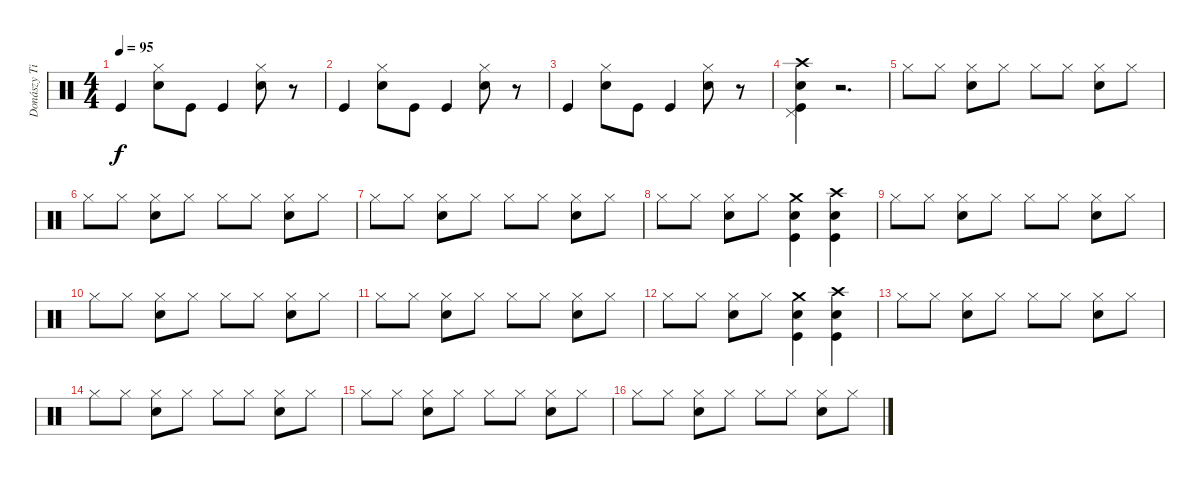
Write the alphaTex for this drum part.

\track ("Donászy Tibor" "Donászy Ti") {instrument percussion}
\staff {score}
\articulation defaults
\ts (4 4)
\tempo 95
\clef neutral
\ks c "Kick (hit)".4{dy f}
("Hi-Hat (closed)" "Snare (hit) 2").8 "Kick (hit)".8 "Kick (hit)".4 ("Hi-Hat (closed)" "Snare (hit) 2").8 r.8 |
"Kick (hit)".4 ("Hi-Hat (closed)" "Snare (hit) 2").8 "Kick (hit)".8 "Kick (hit)".4 ("Hi-Hat (closed)" "Snare (hit) 2").8 r.8 |
"Kick (hit)".4 ("Hi-Hat (closed)" "Snare (hit) 2").8 "Kick (hit)".8 "Kick (hit)".4 ("Hi-Hat (closed)" "Snare (hit) 2").8 r.8 |
("Pedal Hi-Hat (hit)" "Kick (hit)" "Snare (hit) 2" "Crash high (hit)").4 r.2{d} |
"Hi-Hat (closed)".8 "Hi-Hat (closed)".8 ("Hi-Hat (closed)" "Snare (hit) 2").8 "Hi-Hat (closed)".8 "Hi-Hat (closed)".8 "Hi-Hat (closed)".8 ("Hi-Hat (closed)" "Snare (hit) 2").8 "Hi-Hat (closed)".8 |
"Hi-Hat (closed)".8 "Hi-Hat (closed)".8 ("Hi-Hat (closed)" "Snare (hit) 2").8 "Hi-Hat (closed)".8 "Hi-Hat (closed)".8 "Hi-Hat (closed)".8 ("Hi-Hat (closed)" "Snare (hit) 2").8 "Hi-Hat (closed)".8 |
"Hi-Hat (closed)".8 "Hi-Hat (closed)".8 ("Hi-Hat (closed)" "Snare (hit) 2").8 "Hi-Hat (closed)".8 "Hi-Hat (closed)".8 "Hi-Hat (closed)".8 ("Hi-Hat (closed)" "Snare (hit) 2").8 "Hi-Hat (closed)".8 |
"Hi-Hat (closed)".8 "Hi-Hat (closed)".8 ("Hi-Hat (closed)" "Snare (hit) 2").8 "Hi-Hat (closed)".8 ("Kick (hit)" "Snare (hit) 2" "Crash medium (hit)").4 ("Kick (hit)" "Snare (hit) 2" "Crash high (hit)").4 |
"Hi-Hat (closed)".8 "Hi-Hat (closed)".8 ("Hi-Hat (closed)" "Snare (hit) 2").8 "Hi-Hat (closed)".8 "Hi-Hat (closed)".8 "Hi-Hat (closed)".8 ("Hi-Hat (closed)" "Snare (hit) 2").8 "Hi-Hat (closed)".8 |
"Hi-Hat (closed)".8 "Hi-Hat (closed)".8 ("Hi-Hat (closed)" "Snare (hit) 2").8 "Hi-Hat (closed)".8 "Hi-Hat (closed)".8 "Hi-Hat (closed)".8 ("Hi-Hat (closed)" "Snare (hit) 2").8 "Hi-Hat (closed)".8 |
"Hi-Hat (closed)".8 "Hi-Hat (closed)".8 ("Hi-Hat (closed)" "Snare (hit) 2").8 "Hi-Hat (closed)".8 "Hi-Hat (closed)".8 "Hi-Hat (closed)".8 ("Hi-Hat (closed)" "Snare (hit) 2").8 "Hi-Hat (closed)".8 |
"Hi-Hat (closed)".8 "Hi-Hat (closed)".8 ("Hi-Hat (closed)" "Snare (hit) 2").8 "Hi-Hat (closed)".8 ("Kick (hit)" "Snare (hit) 2" "Crash medium (hit)").4 ("Kick (hit)" "Snare (hit) 2" "Crash high (hit)").4 |
"Hi-Hat (closed)".8 "Hi-Hat (closed)".8 ("Hi-Hat (closed)" "Snare (hit) 2").8 "Hi-Hat (closed)".8 "Hi-Hat (closed)".8 "Hi-Hat (closed)".8 ("Hi-Hat (closed)" "Snare (hit) 2").8 "Hi-Hat (closed)".8 |
"Hi-Hat (closed)".8 "Hi-Hat (closed)".8 ("Hi-Hat (closed)" "Snare (hit) 2").8 "Hi-Hat (closed)".8 "Hi-Hat (closed)".8 "Hi-Hat (closed)".8 ("Hi-Hat (closed)" "Snare (hit) 2").8 "Hi-Hat (closed)".8 |
"Hi-Hat (closed)".8 "Hi-Hat (closed)".8 ("Hi-Hat (closed)" "Snare (hit) 2").8 "Hi-Hat (closed)".8 "Hi-Hat (closed)".8 "Hi-Hat (closed)".8 ("Hi-Hat (closed)" "Snare (hit) 2").8 "Hi-Hat (closed)".8 |
"Hi-Hat (closed)".8 "Hi-Hat (closed)".8 ("Hi-Hat (closed)" "Snare (hit) 2").8 "Hi-Hat (closed)".8 "Hi-Hat (closed)".8 "Hi-Hat (closed)".8 ("Hi-Hat (closed)" "Snare (hit) 2").8 "Hi-Hat (closed)".8
